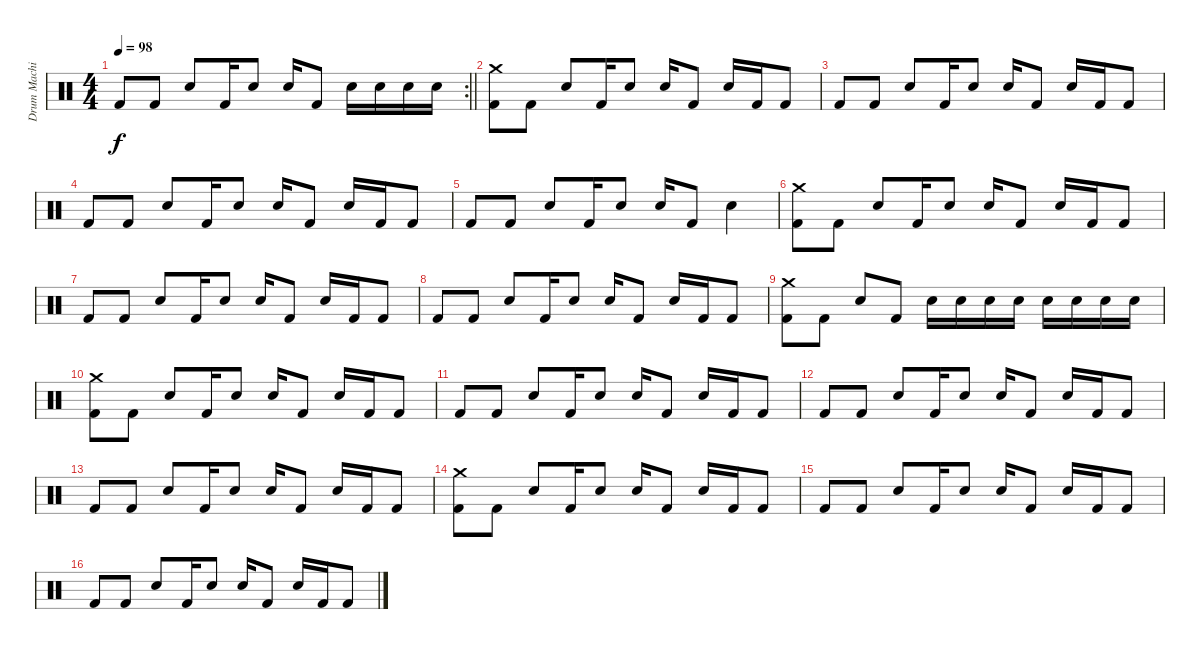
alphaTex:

\track ("Drum Machine" "Drum Machi") {instrument percussion}
\staff {score}
\articulation defaults
\rc 2
\ts (4 4)
\tempo 98
\clef neutral
\barLineRight lightlight
\ks c "Kick (hit) 2".8{dy f} "Kick (hit) 2".8 "Electric Snare (hit)".8 "Kick (hit) 2".16 "Electric Snare (hit)".8 "Electric Snare (hit)".16 "Kick (hit) 2".8 "Electric Snare (hit)".16 "Electric Snare (hit)".16 "Electric Snare (hit)".16 "Electric Snare (hit)".16
|
("Crash medium (hit)" "Kick (hit) 2").8{volume 3} "Kick (hit) 2".8 "Electric Snare (hit)".8 "Kick (hit) 2".16 "Electric Snare (hit)".8 "Electric Snare (hit)".16 "Kick (hit) 2".8 "Electric Snare (hit)".16 "Kick (hit) 2".16 "Kick (hit) 2".8 |
"Kick (hit) 2".8 "Kick (hit) 2".8 "Electric Snare (hit)".8 "Kick (hit) 2".16 "Electric Snare (hit)".8 "Electric Snare (hit)".16 "Kick (hit) 2".8 "Electric Snare (hit)".16 "Kick (hit) 2".16 "Kick (hit) 2".8 |
"Kick (hit) 2".8 "Kick (hit) 2".8 "Electric Snare (hit)".8 "Kick (hit) 2".16 "Electric Snare (hit)".8 "Electric Snare (hit)".16 "Kick (hit) 2".8 "Electric Snare (hit)".16 "Kick (hit) 2".16 "Kick (hit) 2".8 |
"Kick (hit) 2".8 "Kick (hit) 2".8 "Electric Snare (hit)".8 "Kick (hit) 2".16 "Electric Snare (hit)".8 "Electric Snare (hit)".16 "Kick (hit) 2".8 "Electric Snare (hit)".4 |
("Crash medium (hit)" "Kick (hit) 2").8{volume 3} "Kick (hit) 2".8 "Electric Snare (hit)".8 "Kick (hit) 2".16 "Electric Snare (hit)".8 "Electric Snare (hit)".16 "Kick (hit) 2".8 "Electric Snare (hit)".16 "Kick (hit) 2".16 "Kick (hit) 2".8 |
"Kick (hit) 2".8 "Kick (hit) 2".8 "Electric Snare (hit)".8 "Kick (hit) 2".16 "Electric Snare (hit)".8 "Electric Snare (hit)".16 "Kick (hit) 2".8 "Electric Snare (hit)".16 "Kick (hit) 2".16 "Kick (hit) 2".8 |
"Kick (hit) 2".8 "Kick (hit) 2".8 "Electric Snare (hit)".8 "Kick (hit) 2".16 "Electric Snare (hit)".8 "Electric Snare (hit)".16 "Kick (hit) 2".8 "Electric Snare (hit)".16 "Kick (hit) 2".16 "Kick (hit) 2".8 |
("Crash medium (hit)" "Kick (hit) 2").8 "Kick (hit) 2".8 "Electric Snare (hit)".8 "Kick (hit) 2".8 "Electric Snare (hit)".16 "Electric Snare (hit)".16 "Electric Snare (hit)".16 "Electric Snare (hit)".16 "Electric Snare (hit)".16 "Electric Snare (hit)".16 "Electric Snare (hit)".16 "Electric Snare (hit)".16 |
("Crash medium (hit)" "Kick (hit) 2").8 "Kick (hit) 2".8 "Electric Snare (hit)".8 "Kick (hit) 2".16 "Electric Snare (hit)".8 "Electric Snare (hit)".16 "Kick (hit) 2".8 "Electric Snare (hit)".16 "Kick (hit) 2".16 "Kick (hit) 2".8 |
"Kick (hit) 2".8 "Kick (hit) 2".8 "Electric Snare (hit)".8 "Kick (hit) 2".16 "Electric Snare (hit)".8 "Electric Snare (hit)".16 "Kick (hit) 2".8 "Electric Snare (hit)".16 "Kick (hit) 2".16 "Kick (hit) 2".8 |
"Kick (hit) 2".8 "Kick (hit) 2".8 "Electric Snare (hit)".8 "Kick (hit) 2".16 "Electric Snare (hit)".8 "Electric Snare (hit)".16 "Kick (hit) 2".8 "Electric Snare (hit)".16 "Kick (hit) 2".16 "Kick (hit) 2".8 |
"Kick (hit) 2".8 "Kick (hit) 2".8 "Electric Snare (hit)".8 "Kick (hit) 2".16 "Electric Snare (hit)".8 "Electric Snare (hit)".16 "Kick (hit) 2".8 "Electric Snare (hit)".16 "Kick (hit) 2".16 "Kick (hit) 2".8 |
("Crash medium (hit)" "Kick (hit) 2").8 "Kick (hit) 2".8 "Electric Snare (hit)".8 "Kick (hit) 2".16 "Electric Snare (hit)".8 "Electric Snare (hit)".16 "Kick (hit) 2".8 "Electric Snare (hit)".16 "Kick (hit) 2".16 "Kick (hit) 2".8 |
"Kick (hit) 2".8 "Kick (hit) 2".8 "Electric Snare (hit)".8 "Kick (hit) 2".16 "Electric Snare (hit)".8 "Electric Snare (hit)".16 "Kick (hit) 2".8 "Electric Snare (hit)".16 "Kick (hit) 2".16 "Kick (hit) 2".8 |
"Kick (hit) 2".8 "Kick (hit) 2".8 "Electric Snare (hit)".8 "Kick (hit) 2".16 "Electric Snare (hit)".8 "Electric Snare (hit)".16 "Kick (hit) 2".8 "Electric Snare (hit)".16 "Kick (hit) 2".16 "Kick (hit) 2".8
